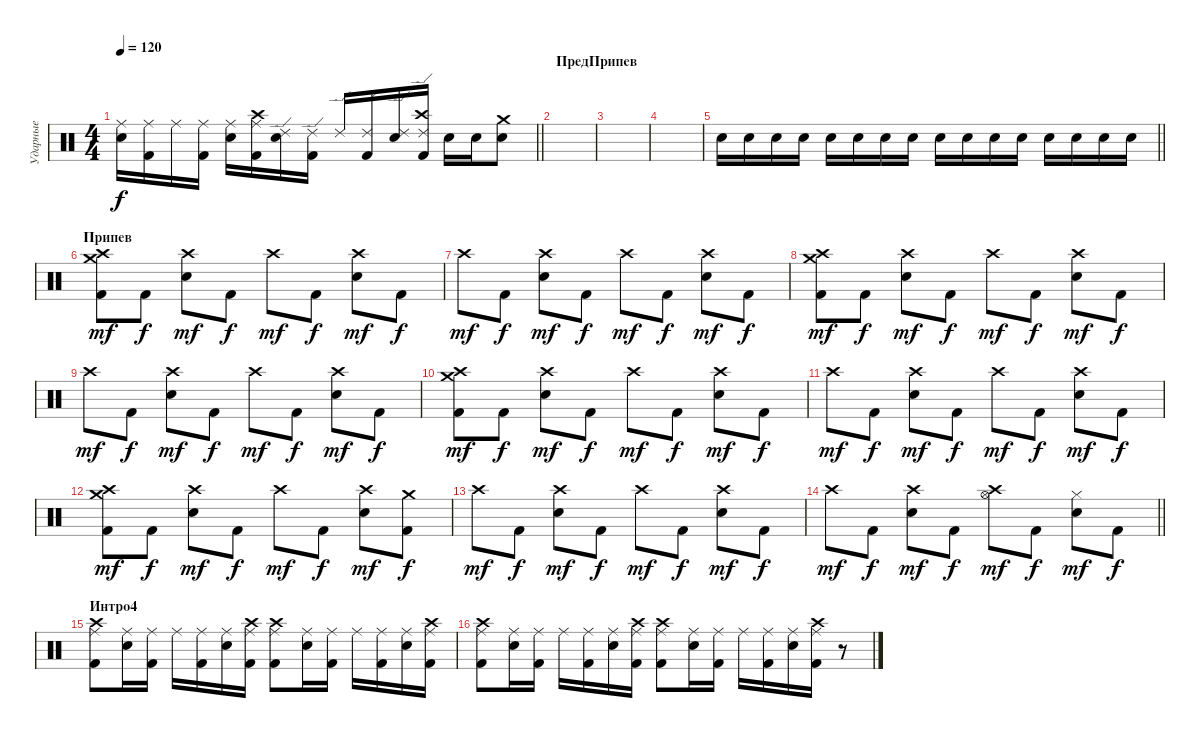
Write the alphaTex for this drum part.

\track ("Ударные" "Ударные") {instrument percussion}
\staff {score}
\articulation defaults
\ts (4 4)
\tempo 120
\clef neutral
\barLineRight lightlight
\ks c
("Ride (middle)" "Electric Snare (hit)").16{dy f} ("Ride (middle)" "Kick (hit) 2").16 "Ride (middle)".16 ("Ride (middle)" "Kick (hit) 2").16 ("Ride (middle)" "Electric Snare (hit)").16 ("Crash high (hit)" "Ride (middle)" "Kick (hit) 2").16 ("Ride (edge) 2" "Electric Snare (hit)").16 ("Ride (edge) 2" "Kick (hit) 2").16 "Ride (edge) 2".16 ("Ride (edge) 2" "Kick (hit) 2").16 ("Ride (edge) 2" "Electric Snare (hit)").16 ("Crash high (hit)" "Ride (edge) 2" "Kick (hit) 2").16 "Snare (hit) 2".16 "Electric Snare (hit)".16 ("Electric Snare (hit)" "Crash medium (hit)").8 |
\section ("" "ПредПрипев")
|
|
|
\barLineRight lightlight "Snare (hit) 2".16 "Snare (hit) 2".16 "Snare (hit) 2".16 "Snare (hit) 2".16 "Snare (hit) 2".16 "Snare (hit) 2".16 "Snare (hit) 2".16 "Snare (hit) 2".16 "Electric Snare (hit)".16 "Electric Snare (hit)".16 "Electric Snare (hit)".16 "Electric Snare (hit)".16 "Electric Snare (hit)".16 "Electric Snare (hit)".16 "Electric Snare (hit)".16 "Electric Snare (hit)".16
|
\section ("" "Припев")
("Crash medium (hit)" "Crash high (hit)" "Kick (hit) 2").8{dy mf} "Kick (hit) 2".8{dy f} ("Crash high (hit)" "Electric Snare (hit)").8{dy mf} "Kick (hit) 2".8{dy f} "Crash high (hit)".8{dy mf} "Kick (hit) 2".8{dy f} ("Crash high (hit)" "Electric Snare (hit)").8{dy mf} "Kick (hit) 2".8{dy f} |
"Crash high (hit)".8{dy mf} "Kick (hit) 2".8{dy f} ("Crash high (hit)" "Electric Snare (hit)").8{dy mf} "Kick (hit) 2".8{dy f} "Crash high (hit)".8{dy mf} "Kick (hit) 2".8{dy f} ("Crash high (hit)" "Electric Snare (hit)").8{dy mf} "Kick (hit) 2".8{dy f} |
("Crash medium (hit)" "Crash high (hit)" "Kick (hit) 2").8{dy mf} "Kick (hit) 2".8{dy f} ("Crash high (hit)" "Electric Snare (hit)").8{dy mf} "Kick (hit) 2".8{dy f} "Crash high (hit)".8{dy mf} "Kick (hit) 2".8{dy f} ("Crash high (hit)" "Electric Snare (hit)").8{dy mf} "Kick (hit) 2".8{dy f} |
"Crash high (hit)".8{dy mf} "Kick (hit) 2".8{dy f} ("Crash high (hit)" "Electric Snare (hit)").8{dy mf} "Kick (hit) 2".8{dy f} "Crash high (hit)".8{dy mf} "Kick (hit) 2".8{dy f} ("Crash high (hit)" "Electric Snare (hit)").8{dy mf} "Kick (hit) 2".8{dy f} |
("Crash medium (hit)" "Crash high (hit)" "Kick (hit) 2").8{dy mf} "Kick (hit) 2".8{dy f} ("Crash high (hit)" "Electric Snare (hit)").8{dy mf} "Kick (hit) 2".8{dy f} "Crash high (hit)".8{dy mf} "Kick (hit) 2".8{dy f} ("Crash high (hit)" "Electric Snare (hit)").8{dy mf} "Kick (hit) 2".8{dy f} |
"Crash high (hit)".8{dy mf} "Kick (hit) 2".8{dy f} ("Crash high (hit)" "Electric Snare (hit)").8{dy mf} "Kick (hit) 2".8{dy f} "Crash high (hit)".8{dy mf} "Kick (hit) 2".8{dy f} ("Crash high (hit)" "Electric Snare (hit)").8{dy mf} "Kick (hit) 2".8{dy f} |
("Crash medium (hit)" "Crash high (hit)" "Kick (hit) 2").8{dy mf} "Kick (hit) 2".8{dy f} ("Crash high (hit)" "Electric Snare (hit)").8{dy mf} "Kick (hit) 2".8{dy f} "Crash high (hit)".8{dy mf} "Kick (hit) 2".8{dy f} ("Crash high (hit)" "Electric Snare (hit)").8{dy mf} ("Crash medium (hit)" "Kick (hit) 2").8{dy f} |
"Crash high (hit)".8{dy mf} "Kick (hit) 2".8{dy f} ("Crash high (hit)" "Electric Snare (hit)").8{dy mf} "Kick (hit) 2".8{dy f} "Crash high (hit)".8{dy mf} "Kick (hit) 2".8{dy f} ("Crash high (hit)" "Electric Snare (hit)").8{dy mf} "Kick (hit) 2".8{dy f} |
\barLineRight lightlight "Crash high (hit)".8{dy mf} "Kick (hit) 2".8{dy f}
("Crash high (hit)" "Electric Snare (hit)").8{dy mf} "Kick (hit) 2".8{dy f} ("Crash high (hit)" "Hi-Hat (open)").8{dy mf} "Kick (hit) 2".8{dy f} ("Hi-Hat (closed)" "Electric Snare (hit)").8{dy mf} "Kick (hit) 2".8{dy f} |
\section ("" "Интро4")
("Crash high (hit)" "Ride (middle)" "Kick (hit) 2").8 ("Ride (middle)" "Electric Snare (hit)").16 ("Ride (middle)" "Kick (hit) 2").16 "Ride (middle)".16 ("Ride (middle)" "Kick (hit) 2").16 ("Ride (middle)" "Electric Snare (hit)").16 ("Crash high (hit)" "Ride (middle)" "Kick (hit) 2").16 ("Crash high (hit)" "Ride (middle)" "Kick (hit) 2").8 ("Ride (middle)" "Electric Snare (hit)").16 ("Ride (middle)" "Kick (hit) 2").16 "Ride (middle)".16 ("Ride (middle)" "Kick (hit) 2").16 ("Ride (middle)" "Electric Snare (hit)").16 ("Crash high (hit)" "Ride (middle)" "Kick (hit) 2").16 |
("Crash high (hit)" "Ride (middle)" "Kick (hit) 2").8 ("Ride (middle)" "Electric Snare (hit)").16 ("Ride (middle)" "Kick (hit) 2").16 "Ride (middle)".16 ("Ride (middle)" "Kick (hit) 2").16 ("Ride (middle)" "Electric Snare (hit)").16 ("Crash high (hit)" "Ride (middle)" "Kick (hit) 2").16 ("Crash high (hit)" "Ride (middle)" "Kick (hit) 2").8 ("Ride (middle)" "Electric Snare (hit)").16 ("Ride (middle)" "Kick (hit) 2").16 "Ride (middle)".16 ("Ride (middle)" "Kick (hit) 2").16 ("Ride (middle)" "Electric Snare (hit)").16 ("Crash high (hit)" "Ride (middle)" "Kick (hit) 2").16 r.8
